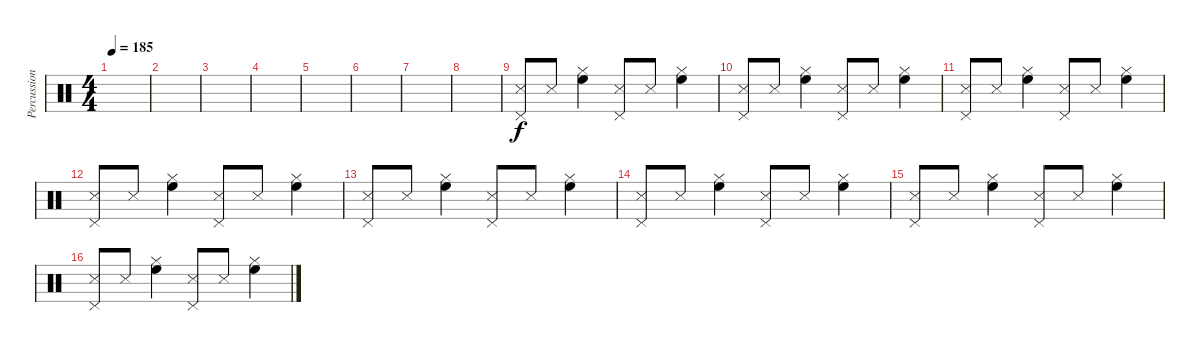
\track ("Percussions" "Percussion") {instrument percussion}
\staff {score}
\articulation defaults
\ts (4 4)
\tempo 185
\clef neutral
\ks c
|
|
|
|
|
|
|
|
("Snare (side stick) 3" "Pedal Hi-Hat (hit)").8 "Snare (side stick) 3".8 ("High Floor Tom (hit)" "Hi-Hat (closed)").4 ("Snare (side stick) 3" "Pedal Hi-Hat (hit)").8 "Snare (side stick) 3".8 ("High Floor Tom (hit)" "Hi-Hat (closed)").4 |
("Snare (side stick) 3" "Pedal Hi-Hat (hit)").8 "Snare (side stick) 3".8 ("High Floor Tom (hit)" "Hi-Hat (closed)").4 ("Snare (side stick) 3" "Pedal Hi-Hat (hit)").8 "Snare (side stick) 3".8 ("High Floor Tom (hit)" "Hi-Hat (closed)").4 |
("Snare (side stick) 3" "Pedal Hi-Hat (hit)").8 "Snare (side stick) 3".8 ("High Floor Tom (hit)" "Hi-Hat (closed)").4 ("Snare (side stick) 3" "Pedal Hi-Hat (hit)").8 "Snare (side stick) 3".8 ("High Floor Tom (hit)" "Hi-Hat (closed)").4 |
("Snare (side stick) 3" "Pedal Hi-Hat (hit)").8 "Snare (side stick) 3".8 ("High Floor Tom (hit)" "Hi-Hat (closed)").4 ("Snare (side stick) 3" "Pedal Hi-Hat (hit)").8 "Snare (side stick) 3".8 ("High Floor Tom (hit)" "Hi-Hat (closed)").4 |
("Snare (side stick) 3" "Pedal Hi-Hat (hit)").8 "Snare (side stick) 3".8 ("High Floor Tom (hit)" "Hi-Hat (closed)").4 ("Snare (side stick) 3" "Pedal Hi-Hat (hit)").8 "Snare (side stick) 3".8 ("High Floor Tom (hit)" "Hi-Hat (closed)").4 |
("Snare (side stick) 3" "Pedal Hi-Hat (hit)").8 "Snare (side stick) 3".8 ("High Floor Tom (hit)" "Hi-Hat (closed)").4 ("Snare (side stick) 3" "Pedal Hi-Hat (hit)").8 "Snare (side stick) 3".8 ("High Floor Tom (hit)" "Hi-Hat (closed)").4 |
("Snare (side stick) 3" "Pedal Hi-Hat (hit)").8 "Snare (side stick) 3".8 ("High Floor Tom (hit)" "Hi-Hat (closed)").4 ("Snare (side stick) 3" "Pedal Hi-Hat (hit)").8 "Snare (side stick) 3".8 ("High Floor Tom (hit)" "Hi-Hat (closed)").4 |
("Snare (side stick) 3" "Pedal Hi-Hat (hit)").8 "Snare (side stick) 3".8 ("High Floor Tom (hit)" "Hi-Hat (closed)").4 ("Snare (side stick) 3" "Pedal Hi-Hat (hit)").8 "Snare (side stick) 3".8 ("High Floor Tom (hit)" "Hi-Hat (closed)").4
